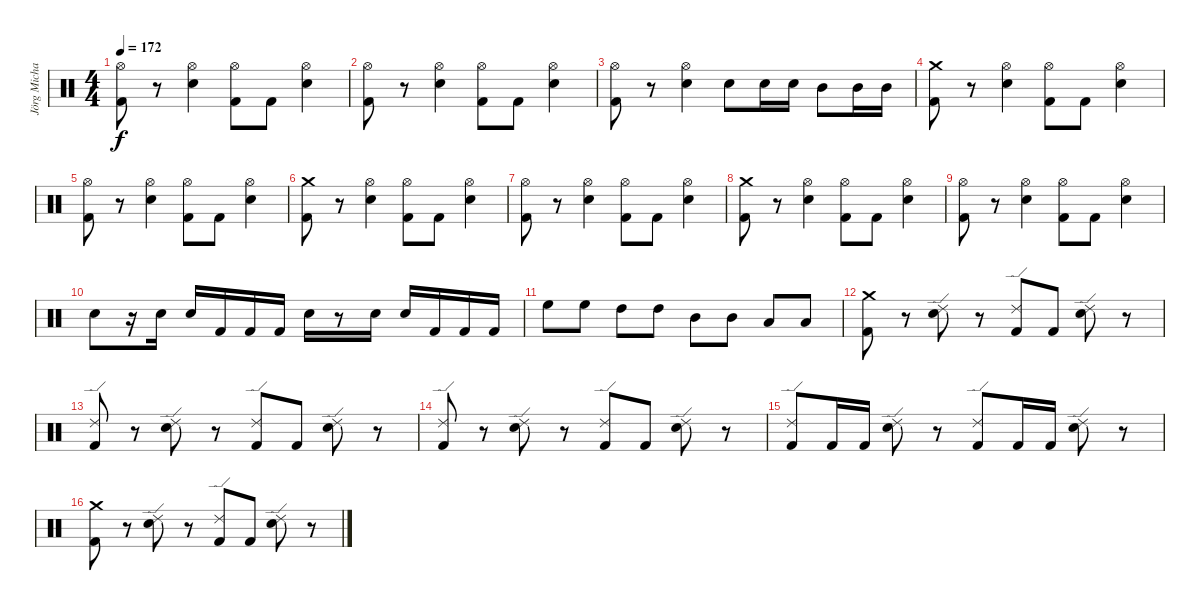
\track ("Jörg Michael" "Jörg Micha") {instrument percussion}
\staff {score}
\articulation defaults
\ts (4 4)
\tempo 172
\clef neutral
\ks c
("Hi-Hat (open)" "Kick (hit) 2").8{dy f} r.8 ("Hi-Hat (open)" "Electric Snare (hit)").4 ("Hi-Hat (open)" "Kick (hit) 2").8 "Kick (hit) 2".8 ("Hi-Hat (open)" "Electric Snare (hit)").4 |
("Hi-Hat (open)" "Kick (hit) 2").8 r.8 ("Hi-Hat (open)" "Electric Snare (hit)").4 ("Hi-Hat (open)" "Kick (hit) 2").8 "Kick (hit) 2".8 ("Hi-Hat (open)" "Electric Snare (hit)").4 |
("Hi-Hat (open)" "Kick (hit) 2").8 r.8 ("Hi-Hat (open)" "Electric Snare (hit)").4 "Electric Snare (hit)".8 "Electric Snare (hit)".16 "Electric Snare (hit)".16 "Mid Tom (hit)".8 "Mid Tom (hit)".16 "Mid Tom (hit)".16 |
("Kick (hit) 2" "Crash medium (hit)").8 r.8 ("Hi-Hat (open)" "Electric Snare (hit)").4 ("Hi-Hat (open)" "Kick (hit) 2").8 "Kick (hit) 2".8 ("Hi-Hat (open)" "Electric Snare (hit)").4 |
("Hi-Hat (open)" "Kick (hit) 2").8 r.8 ("Hi-Hat (open)" "Electric Snare (hit)").4 ("Hi-Hat (open)" "Kick (hit) 2").8 "Kick (hit) 2".8 ("Hi-Hat (open)" "Electric Snare (hit)").4 |
("Crash medium (hit)" "Kick (hit) 2").8 r.8 ("Hi-Hat (open)" "Electric Snare (hit)").4 ("Hi-Hat (open)" "Kick (hit) 2").8 "Kick (hit) 2".8 ("Hi-Hat (open)" "Electric Snare (hit)").4 |
("Hi-Hat (open)" "Kick (hit) 2").8 r.8 ("Hi-Hat (open)" "Electric Snare (hit)").4 ("Hi-Hat (open)" "Kick (hit) 2").8 "Kick (hit) 2".8 ("Hi-Hat (open)" "Electric Snare (hit)").4 |
("Kick (hit) 2" "Crash medium (hit)").8 r.8 ("Hi-Hat (open)" "Electric Snare (hit)").4 ("Hi-Hat (open)" "Kick (hit) 2").8 "Kick (hit) 2".8 ("Hi-Hat (open)" "Electric Snare (hit)").4 |
("Hi-Hat (open)" "Kick (hit) 2").8 r.8 ("Hi-Hat (open)" "Electric Snare (hit)").4 ("Hi-Hat (open)" "Kick (hit) 2").8 "Kick (hit) 2".8 ("Hi-Hat (open)" "Electric Snare (hit)").4 |
"Electric Snare (hit)".8 r.16 "Electric Snare (hit)".16 "Electric Snare (hit)".16 "Kick (hit) 2".16 "Kick (hit) 2".16 "Kick (hit) 2".16 "Electric Snare (hit)".16 r.8 "Electric Snare (hit)".16 "Electric Snare (hit)".16 "Kick (hit) 2".16 "Kick (hit) 2".16 "Kick (hit) 2".16 |
"High Floor Tom (hit)".8 "High Floor Tom (hit)".8 "High Tom (hit)".8 "High Tom (hit)".8 "Mid Tom (hit)".8 "Mid Tom (hit)".8 "Low Tom (hit)".8 "Low Tom (hit)".8 |
("Crash medium (hit)" "Kick (hit) 2").8 r.8 ("Ride (edge) 2" "Electric Snare (hit)").8 r.8 ("Ride (edge) 2" "Kick (hit) 2").8 "Kick (hit) 2".8 ("Ride (edge) 2" "Electric Snare (hit)").8 r.8 |
("Ride (edge) 2" "Kick (hit) 2").8 r.8 ("Ride (edge) 2" "Electric Snare (hit)").8 r.8 ("Ride (edge) 2" "Kick (hit) 2").8 "Kick (hit) 2".8 ("Ride (edge) 2" "Electric Snare (hit)").8 r.8 |
("Ride (edge) 2" "Kick (hit) 2").8 r.8 ("Ride (edge) 2" "Electric Snare (hit)").8 r.8 ("Ride (edge) 2" "Kick (hit) 2").8 "Kick (hit) 2".8 ("Ride (edge) 2" "Electric Snare (hit)").8 r.8 |
("Ride (edge) 2" "Kick (hit) 2").8 "Kick (hit) 2".16 "Kick (hit) 2".16 ("Ride (edge) 2" "Electric Snare (hit)").8 r.8 ("Ride (edge) 2" "Kick (hit) 2").8 "Kick (hit) 2".16 "Kick (hit) 2".16 ("Ride (edge) 2" "Electric Snare (hit)").8 r.8 |
("Crash medium (hit)" "Kick (hit) 2").8 r.8 ("Ride (edge) 2" "Electric Snare (hit)").8 r.8 ("Ride (edge) 2" "Kick (hit) 2").8 "Kick (hit) 2".8 ("Ride (edge) 2" "Electric Snare (hit)").8 r.8
